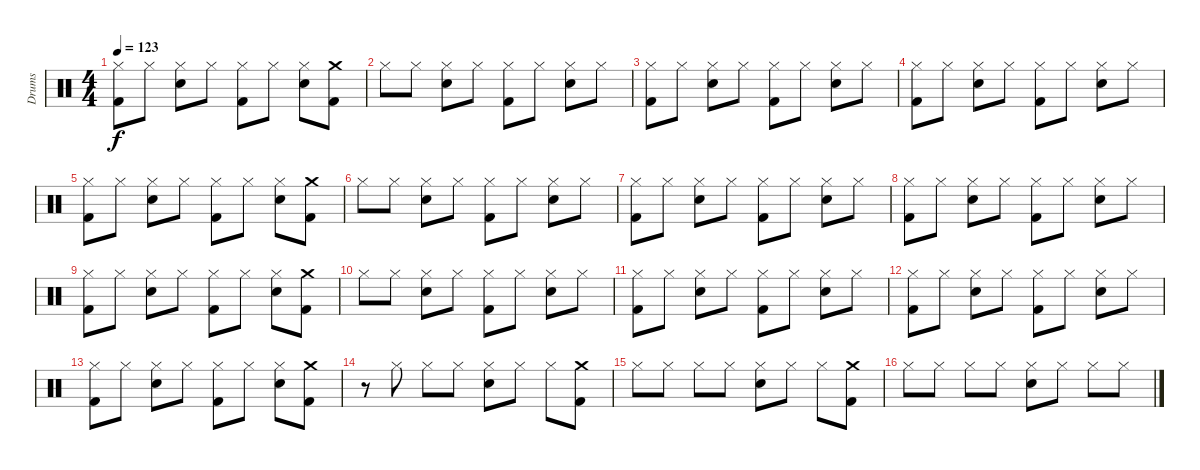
\track ("Drums" "Drums") {instrument percussion}
\staff {score}
\articulation defaults
\ts (4 4)
\tempo 123
\clef neutral
\ks c
("Kick (hit) 2" "Hi-Hat (closed)").8{dy f} "Hi-Hat (closed)".8 ("Snare (hit) 2" "Hi-Hat (closed)").8 "Hi-Hat (closed)".8 ("Kick (hit) 2" "Hi-Hat (closed)").8 "Hi-Hat (closed)".8 ("Snare (hit) 2" "Hi-Hat (closed)").8 ("Crash medium (hit)" "Kick (hit) 2").8 |
"Hi-Hat (closed)".8 "Hi-Hat (closed)".8 ("Snare (hit) 2" "Hi-Hat (closed)").8 "Hi-Hat (closed)".8 ("Kick (hit) 2" "Hi-Hat (closed)").8 "Hi-Hat (closed)".8 ("Snare (hit) 2" "Hi-Hat (closed)").8 "Hi-Hat (closed)".8 |
("Kick (hit) 2" "Hi-Hat (closed)").8 "Hi-Hat (closed)".8 ("Snare (hit) 2" "Hi-Hat (closed)").8 "Hi-Hat (closed)".8 ("Kick (hit) 2" "Hi-Hat (closed)").8 "Hi-Hat (closed)".8 ("Snare (hit) 2" "Hi-Hat (closed)").8 "Hi-Hat (closed)".8 |
("Kick (hit) 2" "Hi-Hat (closed)").8 "Hi-Hat (closed)".8 ("Snare (hit) 2" "Hi-Hat (closed)").8 "Hi-Hat (closed)".8 ("Kick (hit) 2" "Hi-Hat (closed)").8 "Hi-Hat (closed)".8 ("Snare (hit) 2" "Hi-Hat (closed)").8 "Hi-Hat (closed)".8 |
("Kick (hit) 2" "Hi-Hat (closed)").8 "Hi-Hat (closed)".8 ("Snare (hit) 2" "Hi-Hat (closed)").8 "Hi-Hat (closed)".8 ("Kick (hit) 2" "Hi-Hat (closed)").8 "Hi-Hat (closed)".8 ("Snare (hit) 2" "Hi-Hat (closed)").8 ("Kick (hit) 2" "Crash medium (hit)").8 |
"Hi-Hat (closed)".8 "Hi-Hat (closed)".8 ("Snare (hit) 2" "Hi-Hat (closed)").8 "Hi-Hat (closed)".8 ("Kick (hit) 2" "Hi-Hat (closed)").8 "Hi-Hat (closed)".8 ("Snare (hit) 2" "Hi-Hat (closed)").8 "Hi-Hat (closed)".8 |
("Kick (hit) 2" "Hi-Hat (closed)").8 "Hi-Hat (closed)".8 ("Snare (hit) 2" "Hi-Hat (closed)").8 "Hi-Hat (closed)".8 ("Kick (hit) 2" "Hi-Hat (closed)").8 "Hi-Hat (closed)".8 ("Snare (hit) 2" "Hi-Hat (closed)").8 "Hi-Hat (closed)".8 |
("Kick (hit) 2" "Hi-Hat (closed)").8 "Hi-Hat (closed)".8 ("Snare (hit) 2" "Hi-Hat (closed)").8 "Hi-Hat (closed)".8 ("Kick (hit) 2" "Hi-Hat (closed)").8 "Hi-Hat (closed)".8 ("Snare (hit) 2" "Hi-Hat (closed)").8 "Hi-Hat (closed)".8 |
("Kick (hit) 2" "Hi-Hat (closed)").8 "Hi-Hat (closed)".8 ("Snare (hit) 2" "Hi-Hat (closed)").8 "Hi-Hat (closed)".8 ("Kick (hit) 2" "Hi-Hat (closed)").8 "Hi-Hat (closed)".8 ("Snare (hit) 2" "Hi-Hat (closed)").8 ("Kick (hit) 2" "Crash medium (hit)").8 |
"Hi-Hat (closed)".8 "Hi-Hat (closed)".8 ("Snare (hit) 2" "Hi-Hat (closed)").8 "Hi-Hat (closed)".8 ("Kick (hit) 2" "Hi-Hat (closed)").8 "Hi-Hat (closed)".8 ("Snare (hit) 2" "Hi-Hat (closed)").8 "Hi-Hat (closed)".8 |
("Kick (hit) 2" "Hi-Hat (closed)").8 "Hi-Hat (closed)".8 ("Snare (hit) 2" "Hi-Hat (closed)").8 "Hi-Hat (closed)".8 ("Kick (hit) 2" "Hi-Hat (closed)").8 "Hi-Hat (closed)".8 ("Snare (hit) 2" "Hi-Hat (closed)").8 "Hi-Hat (closed)".8 |
("Kick (hit) 2" "Hi-Hat (closed)").8 "Hi-Hat (closed)".8 ("Snare (hit) 2" "Hi-Hat (closed)").8 "Hi-Hat (closed)".8 ("Kick (hit) 2" "Hi-Hat (closed)").8 "Hi-Hat (closed)".8 ("Snare (hit) 2" "Hi-Hat (closed)").8 "Hi-Hat (closed)".8 |
("Kick (hit) 2" "Hi-Hat (closed)").8 "Hi-Hat (closed)".8 ("Snare (hit) 2" "Hi-Hat (closed)").8 "Hi-Hat (closed)".8 ("Kick (hit) 2" "Hi-Hat (closed)").8 "Hi-Hat (closed)".8 ("Snare (hit) 2" "Hi-Hat (closed)").8 ("Kick (hit) 2" "Crash medium (hit)").8 |
r.8 "Hi-Hat (closed)".8 "Hi-Hat (closed)".8 "Hi-Hat (closed)".8 ("Snare (hit) 2" "Hi-Hat (closed)").8 "Hi-Hat (closed)".8 "Hi-Hat (closed)".8 ("Kick (hit) 2" "Crash medium (hit)").8 |
"Hi-Hat (closed)".8 "Hi-Hat (closed)".8 "Hi-Hat (closed)".8 "Hi-Hat (closed)".8 ("Snare (hit) 2" "Hi-Hat (closed)").8 "Hi-Hat (closed)".8 "Hi-Hat (closed)".8 ("Crash medium (hit)" "Kick (hit) 2").8 |
"Hi-Hat (closed)".8 "Hi-Hat (closed)".8 "Hi-Hat (closed)".8 "Hi-Hat (closed)".8 ("Snare (hit) 2" "Hi-Hat (closed)").8 "Hi-Hat (closed)".8 "Hi-Hat (closed)".8 "Hi-Hat (closed)".8
